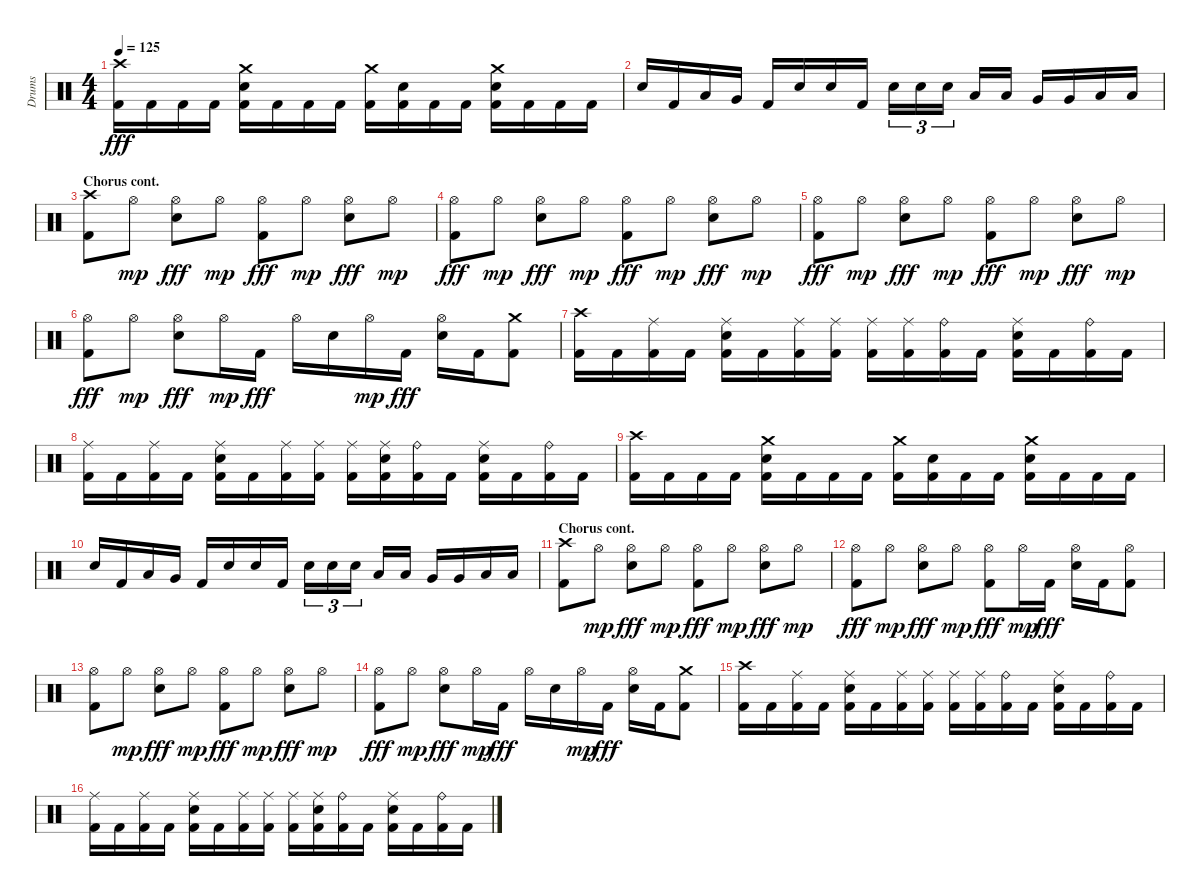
\track ("Drums" "Drums") {instrument percussion}
\staff {score}
\articulation defaults
\ts (4 4)
\tempo 125
\clef neutral
\ks aminor
("Kick (hit) 2" "Crash high (hit)").16{dy fff} "Kick (hit) 2".16 "Kick (hit) 2".16 "Kick (hit) 2".16 ("Kick (hit) 2" "Snare (hit) 2" "Crash medium (hit)").16 "Kick (hit) 2".16 "Kick (hit) 2".16 "Kick (hit) 2".16 ("Kick (hit) 2" "Crash medium (hit)").16 ("Kick (hit) 2" "Snare (hit) 2").16 "Kick (hit) 2".16 "Kick (hit) 2".16 ("Kick (hit) 2" "Snare (hit) 2" "Crash medium (hit)").16 "Kick (hit) 2".16 "Kick (hit) 2".16 "Kick (hit) 2".16 |
"Snare (hit) 2".16 "Kick (hit) 2".16 "Low Tom (hit)".16 "Very Low Tom (hit)".16 "Kick (hit) 2".16 "Snare (hit) 2".16 "Snare (hit) 2".16 "Kick (hit) 2".16 "Snare (hit) 2".16{tu (3 2)} "Snare (hit) 2".16{tu (3 2)} "Snare (hit) 2".16{tu (3 2)} "Low Tom (hit)".16 "Low Tom (hit)".16 "Very Low Tom (hit)".16 "Very Low Tom (hit)".16 "Low Floor Tom (hit)".16 "Low Floor Tom (hit)".16 |
\section ("" "Chorus cont.")
("Kick (hit) 2" "Crash high (hit)").8 "Hi-Hat (open)".8{dy mp} ("Snare (hit) 2" "Hi-Hat (open)").8{dy fff} "Hi-Hat (open)".8{dy mp} ("Kick (hit) 2" "Hi-Hat (open)").8{dy fff} "Hi-Hat (open)".8{dy mp} ("Snare (hit) 2" "Hi-Hat (open)").8{dy fff} "Hi-Hat (open)".8{dy mp} |
("Kick (hit) 2" "Hi-Hat (open)").8{dy fff} "Hi-Hat (open)".8{dy mp} ("Snare (hit) 2" "Hi-Hat (open)").8{dy fff} "Hi-Hat (open)".8{dy mp} ("Kick (hit) 2" "Hi-Hat (open)").8{dy fff} "Hi-Hat (open)".8{dy mp} ("Snare (hit) 2" "Hi-Hat (open)").8{dy fff} "Hi-Hat (open)".8{dy mp} |
("Kick (hit) 2" "Hi-Hat (open)").8{dy fff} "Hi-Hat (open)".8{dy mp} ("Snare (hit) 2" "Hi-Hat (open)").8{dy fff} "Hi-Hat (open)".8{dy mp} ("Kick (hit) 2" "Hi-Hat (open)").8{dy fff} "Hi-Hat (open)".8{dy mp} ("Snare (hit) 2" "Hi-Hat (open)").8{dy fff} "Hi-Hat (open)".8{dy mp} |
("Kick (hit) 2" "Hi-Hat (open)").8{dy fff} "Hi-Hat (open)".8{dy mp} ("Snare (hit) 2" "Hi-Hat (open)").8{dy fff} "Hi-Hat (open)".16{dy mp} "Kick (hit) 2".16{dy fff} "Hi-Hat (open)".16 "Snare (hit) 2".16 "Hi-Hat (open)".16{dy mp} "Kick (hit) 2".16{dy fff} ("Snare (hit) 2" "Hi-Hat (open)").16 "Kick (hit) 2".16 ("Kick (hit) 2" "Crash medium (hit)").8 |
("Kick (hit) 2" "Crash high (hit)").16 "Kick (hit) 2".16 ("Kick (hit) 2" "Ride (middle)").16 "Kick (hit) 2".16 ("Kick (hit) 2" "Snare (hit) 2" "Ride (middle)").16 "Kick (hit) 2".16 ("Kick (hit) 2" "Ride (middle)").16 ("Kick (hit) 2" "Ride (middle)").16 ("Kick (hit) 2" "Ride (middle)").16 ("Kick (hit) 2" "Ride (middle)").16 ("Kick (hit) 2" "Ride (bell)").16 "Kick (hit) 2".16 ("Kick (hit) 2" "Snare (hit) 2" "Ride (middle)").16 "Kick (hit) 2".16 ("Kick (hit) 2" "Ride (bell)").16 "Kick (hit) 2".16 |
("Kick (hit) 2" "Ride (middle)").16 "Kick (hit) 2".16 ("Kick (hit) 2" "Ride (middle)").16 "Kick (hit) 2".16 ("Kick (hit) 2" "Snare (hit) 2" "Ride (middle)").16 "Kick (hit) 2".16 ("Kick (hit) 2" "Ride (middle)").16 ("Kick (hit) 2" "Ride (middle)").16 ("Kick (hit) 2" "Ride (middle)").16 ("Kick (hit) 2" "Snare (hit) 2" "Ride (middle)").16 ("Kick (hit) 2" "Ride (bell)").16 "Kick (hit) 2".16 ("Kick (hit) 2" "Snare (hit) 2" "Ride (middle)").16 "Kick (hit) 2".16 ("Kick (hit) 2" "Ride (bell)").16 "Kick (hit) 2".16 |
("Kick (hit) 2" "Crash high (hit)").16 "Kick (hit) 2".16 "Kick (hit) 2".16 "Kick (hit) 2".16 ("Kick (hit) 2" "Snare (hit) 2" "Crash medium (hit)").16 "Kick (hit) 2".16 "Kick (hit) 2".16 "Kick (hit) 2".16 ("Kick (hit) 2" "Crash medium (hit)").16 ("Kick (hit) 2" "Snare (hit) 2").16 "Kick (hit) 2".16 "Kick (hit) 2".16 ("Kick (hit) 2" "Snare (hit) 2" "Crash medium (hit)").16 "Kick (hit) 2".16 "Kick (hit) 2".16 "Kick (hit) 2".16 |
"Snare (hit) 2".16 "Kick (hit) 2".16 "Low Tom (hit)".16 "Very Low Tom (hit)".16 "Kick (hit) 2".16 "Snare (hit) 2".16 "Snare (hit) 2".16 "Kick (hit) 2".16 "Snare (hit) 2".16{tu (3 2)} "Snare (hit) 2".16{tu (3 2)} "Snare (hit) 2".16{tu (3 2)} "Low Tom (hit)".16 "Low Tom (hit)".16 "Very Low Tom (hit)".16 "Very Low Tom (hit)".16 "Low Floor Tom (hit)".16 "Low Floor Tom (hit)".16 |
\section ("" "Chorus cont.")
("Kick (hit) 2" "Crash high (hit)").8 "Hi-Hat (open)".8{dy mp} ("Snare (hit) 2" "Hi-Hat (open)").8{dy fff} "Hi-Hat (open)".8{dy mp} ("Kick (hit) 2" "Hi-Hat (open)").8{dy fff} "Hi-Hat (open)".8{dy mp} ("Snare (hit) 2" "Hi-Hat (open)").8{dy fff} "Hi-Hat (open)".8{dy mp} |
("Kick (hit) 2" "Hi-Hat (open)").8{dy fff} "Hi-Hat (open)".8{dy mp} ("Snare (hit) 2" "Hi-Hat (open)").8{dy fff} "Hi-Hat (open)".8{dy mp} ("Kick (hit) 2" "Hi-Hat (open)").8{dy fff} "Hi-Hat (open)".16{dy mp} "Kick (hit) 2".16{dy fff} ("Snare (hit) 2" "Hi-Hat (open)").16 "Kick (hit) 2".16 ("Kick (hit) 2" "Hi-Hat (open)").8 |
("Kick (hit) 2" "Hi-Hat (open)").8 "Hi-Hat (open)".8{dy mp} ("Snare (hit) 2" "Hi-Hat (open)").8{dy fff} "Hi-Hat (open)".8{dy mp} ("Kick (hit) 2" "Hi-Hat (open)").8{dy fff} "Hi-Hat (open)".8{dy mp} ("Snare (hit) 2" "Hi-Hat (open)").8{dy fff} "Hi-Hat (open)".8{dy mp} |
("Kick (hit) 2" "Hi-Hat (open)").8{dy fff} "Hi-Hat (open)".8{dy mp} ("Snare (hit) 2" "Hi-Hat (open)").8{dy fff} "Hi-Hat (open)".16{dy mp} "Kick (hit) 2".16{dy fff} "Hi-Hat (open)".16 "Snare (hit) 2".16 "Hi-Hat (open)".16{dy mp} "Kick (hit) 2".16{dy fff} ("Snare (hit) 2" "Hi-Hat (open)").16 "Kick (hit) 2".16 ("Kick (hit) 2" "Crash medium (hit)").8 |
("Kick (hit) 2" "Crash high (hit)").16 "Kick (hit) 2".16 ("Kick (hit) 2" "Ride (middle)").16 "Kick (hit) 2".16 ("Kick (hit) 2" "Snare (hit) 2" "Ride (middle)").16 "Kick (hit) 2".16 ("Kick (hit) 2" "Ride (middle)").16 ("Kick (hit) 2" "Ride (middle)").16 ("Kick (hit) 2" "Ride (middle)").16 ("Kick (hit) 2" "Ride (middle)").16 ("Kick (hit) 2" "Ride (bell)").16 "Kick (hit) 2".16 ("Kick (hit) 2" "Snare (hit) 2" "Ride (middle)").16 "Kick (hit) 2".16 ("Kick (hit) 2" "Ride (bell)").16 "Kick (hit) 2".16 |
("Kick (hit) 2" "Ride (middle)").16 "Kick (hit) 2".16 ("Kick (hit) 2" "Ride (middle)").16 "Kick (hit) 2".16 ("Kick (hit) 2" "Snare (hit) 2" "Ride (middle)").16 "Kick (hit) 2".16 ("Kick (hit) 2" "Ride (middle)").16 ("Kick (hit) 2" "Ride (middle)").16 ("Kick (hit) 2" "Ride (middle)").16 ("Kick (hit) 2" "Snare (hit) 2" "Ride (middle)").16 ("Kick (hit) 2" "Ride (bell)").16 "Kick (hit) 2".16 ("Kick (hit) 2" "Snare (hit) 2" "Ride (middle)").16 "Kick (hit) 2".16 ("Kick (hit) 2" "Ride (bell)").16 "Kick (hit) 2".16
